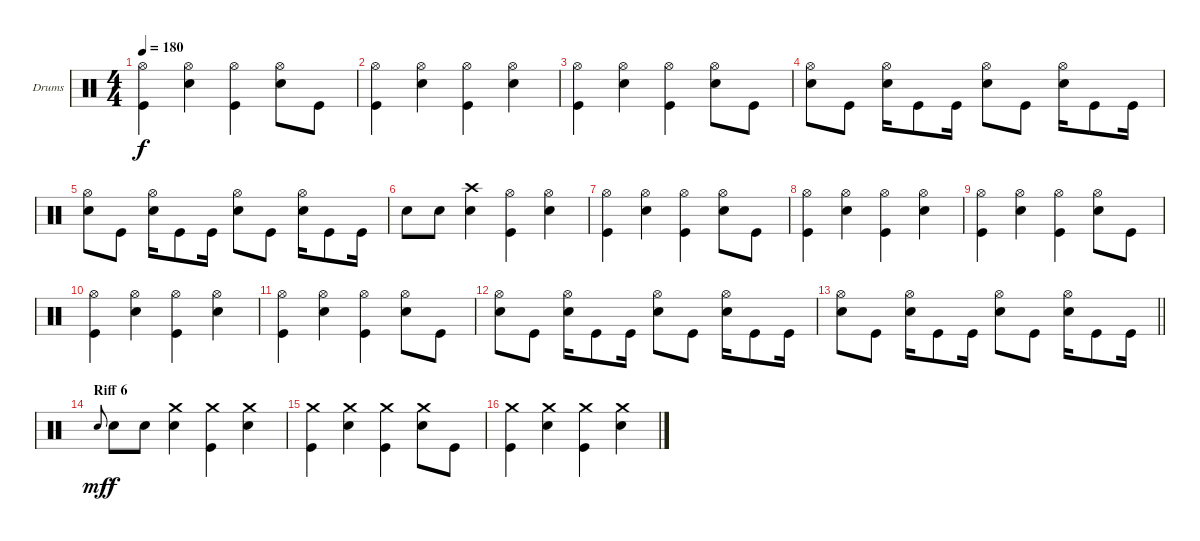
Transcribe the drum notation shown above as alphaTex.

\bracketExtendMode groupsimilarinstruments
\firstSystemTrackNameOrientation horizontal
\otherSystemsTrackNameOrientation horizontal
\track ("Drumkit" "Drums") {instrument percussion}
\staff {score}
\articulation defaults
\ts (4 4)
\tempo 180
\clef neutral
\ks c
("Hi-Hat (open)" "Kick (hit)").4{dy f} ("Hi-Hat (open)" "Snare (hit) 2").4 ("Hi-Hat (open)" "Kick (hit)").4 ("Hi-Hat (open)" "Snare (hit) 2").8 "Kick (hit)".8 |
("Hi-Hat (open)" "Kick (hit)").4 ("Hi-Hat (open)" "Snare (hit) 2").4 ("Hi-Hat (open)" "Kick (hit)").4 ("Hi-Hat (open)" "Snare (hit) 2").4 |
("Hi-Hat (open)" "Kick (hit)").4 ("Hi-Hat (open)" "Snare (hit) 2").4 ("Hi-Hat (open)" "Kick (hit)").4 ("Hi-Hat (open)" "Snare (hit) 2").8 "Kick (hit)".8 |
("Hi-Hat (open)" "Snare (hit) 2").8 "Kick (hit)".8 ("Hi-Hat (open)" "Snare (hit) 2").16 "Kick (hit)".8 "Kick (hit)".16 ("Hi-Hat (open)" "Snare (hit) 2").8 "Kick (hit)".8 ("Hi-Hat (open)" "Snare (hit) 2").16 "Kick (hit)".8 "Kick (hit)".16 |
("Hi-Hat (open)" "Snare (hit) 2").8 "Kick (hit)".8 ("Hi-Hat (open)" "Snare (hit) 2").16 "Kick (hit)".8 "Kick (hit)".16 ("Hi-Hat (open)" "Snare (hit) 2").8 "Kick (hit)".8 ("Hi-Hat (open)" "Snare (hit) 2").16 "Kick (hit)".8 "Kick (hit)".16 |
"Snare (hit) 2".8 "Snare (hit) 2".8 ("Crash high (hit)" "Snare (hit) 2").4 ("Hi-Hat (open)" "Kick (hit)").4 ("Hi-Hat (open)" "Snare (hit) 2").4 |
("Hi-Hat (open)" "Kick (hit)").4 ("Hi-Hat (open)" "Snare (hit) 2").4 ("Hi-Hat (open)" "Kick (hit)").4 ("Hi-Hat (open)" "Snare (hit) 2").8 "Kick (hit)".8 |
("Hi-Hat (open)" "Kick (hit)").4 ("Hi-Hat (open)" "Snare (hit) 2").4 ("Hi-Hat (open)" "Kick (hit)").4 ("Hi-Hat (open)" "Snare (hit) 2").4 |
("Hi-Hat (open)" "Kick (hit)").4 ("Hi-Hat (open)" "Snare (hit) 2").4 ("Hi-Hat (open)" "Kick (hit)").4 ("Hi-Hat (open)" "Snare (hit) 2").8 "Kick (hit)".8 |
("Hi-Hat (open)" "Kick (hit)").4 ("Hi-Hat (open)" "Snare (hit) 2").4 ("Hi-Hat (open)" "Kick (hit)").4 ("Hi-Hat (open)" "Snare (hit) 2").4 |
("Hi-Hat (open)" "Kick (hit)").4 ("Hi-Hat (open)" "Snare (hit) 2").4 ("Hi-Hat (open)" "Kick (hit)").4 ("Hi-Hat (open)" "Snare (hit) 2").8 "Kick (hit)".8 |
("Hi-Hat (open)" "Snare (hit) 2").8 "Kick (hit)".8 ("Hi-Hat (open)" "Snare (hit) 2").16 "Kick (hit)".8 "Kick (hit)".16 ("Hi-Hat (open)" "Snare (hit) 2").8 "Kick (hit)".8 ("Hi-Hat (open)" "Snare (hit) 2").16 "Kick (hit)".8 "Kick (hit)".16 |
\barLineRight lightlight
("Hi-Hat (open)" "Snare (hit) 2").8 "Kick (hit)".8 ("Hi-Hat (open)" "Snare (hit) 2").16 "Kick (hit)".8 "Kick (hit)".16 ("Hi-Hat (open)" "Snare (hit) 2").8 "Kick (hit)".8 ("Hi-Hat (open)" "Snare (hit) 2").16 "Kick (hit)".8 "Kick (hit)".16 |
\section ("" "Riff 6")
"Snare (hit) 2".8{gr onbeat dy mf} "Snare (hit) 2".8{dy f} "Snare (hit) 2".8 ("Crash medium (hit)" "Snare (hit) 2").4 ("Crash medium (hit)" "Kick (hit)").4 ("Crash medium (hit)" "Snare (hit) 2").4 |
("Crash medium (hit)" "Kick (hit)").4 ("Crash medium (hit)" "Snare (hit) 2").4 ("Crash medium (hit)" "Kick (hit)").4 ("Crash medium (hit)" "Snare (hit) 2").8 "Kick (hit)".8 |
("Crash medium (hit)" "Kick (hit)").4 ("Crash medium (hit)" "Snare (hit) 2").4 ("Crash medium (hit)" "Kick (hit)").4 ("Crash medium (hit)" "Snare (hit) 2").4
